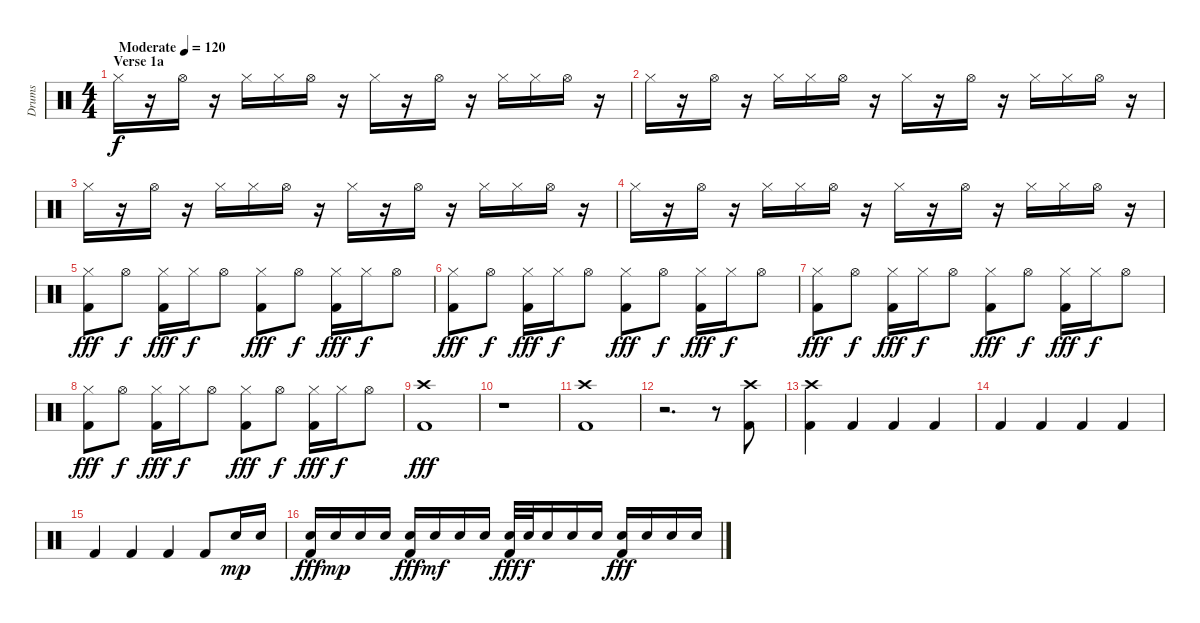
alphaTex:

\track ("Drums" "Drums") {instrument percussion}
\staff {score}
\articulation defaults
\ts (4 4)
\section ("" "Verse 1a")
\tempo (120 "Moderate")
\clef neutral
\ks c "Hi-Hat (closed)".16{dy f}
r.16 "Hi-Hat (open)".16 r.16 "Hi-Hat (closed)".16 "Hi-Hat (closed)".16 "Hi-Hat (open)".16 r.16 "Hi-Hat (closed)".16 r.16 "Hi-Hat (open)".16 r.16 "Hi-Hat (closed)".16 "Hi-Hat (closed)".16 "Hi-Hat (open)".16 r.16 |
"Hi-Hat (closed)".16 r.16 "Hi-Hat (open)".16 r.16 "Hi-Hat (closed)".16 "Hi-Hat (closed)".16 "Hi-Hat (open)".16 r.16 "Hi-Hat (closed)".16 r.16 "Hi-Hat (open)".16 r.16 "Hi-Hat (closed)".16 "Hi-Hat (closed)".16 "Hi-Hat (open)".16 r.16 |
"Hi-Hat (closed)".16 r.16 "Hi-Hat (open)".16 r.16 "Hi-Hat (closed)".16 "Hi-Hat (closed)".16 "Hi-Hat (open)".16 r.16 "Hi-Hat (closed)".16 r.16 "Hi-Hat (open)".16 r.16 "Hi-Hat (closed)".16 "Hi-Hat (closed)".16 "Hi-Hat (open)".16 r.16 |
"Hi-Hat (closed)".16 r.16 "Hi-Hat (open)".16 r.16 "Hi-Hat (closed)".16 "Hi-Hat (closed)".16 "Hi-Hat (open)".16 r.16 "Hi-Hat (closed)".16 r.16 "Hi-Hat (open)".16 r.16 "Hi-Hat (closed)".16 "Hi-Hat (closed)".16 "Hi-Hat (open)".16 r.16 |
("Hi-Hat (closed)" "Kick (hit) 2").8{dy fff} "Hi-Hat (open)".8{dy f} ("Hi-Hat (closed)" "Kick (hit) 2").16{dy fff} "Hi-Hat (closed)".16{dy f} "Hi-Hat (open)".8 ("Hi-Hat (closed)" "Kick (hit) 2").8{dy fff} "Hi-Hat (open)".8{dy f} ("Hi-Hat (closed)" "Kick (hit) 2").16{dy fff} "Hi-Hat (closed)".16{dy f} "Hi-Hat (open)".8 |
("Hi-Hat (closed)" "Kick (hit) 2").8{dy fff} "Hi-Hat (open)".8{dy f} ("Hi-Hat (closed)" "Kick (hit) 2").16{dy fff} "Hi-Hat (closed)".16{dy f} "Hi-Hat (open)".8 ("Hi-Hat (closed)" "Kick (hit) 2").8{dy fff} "Hi-Hat (open)".8{dy f} ("Hi-Hat (closed)" "Kick (hit) 2").16{dy fff} "Hi-Hat (closed)".16{dy f} "Hi-Hat (open)".8 |
("Hi-Hat (closed)" "Kick (hit) 2").8{dy fff} "Hi-Hat (open)".8{dy f} ("Hi-Hat (closed)" "Kick (hit) 2").16{dy fff} "Hi-Hat (closed)".16{dy f} "Hi-Hat (open)".8 ("Hi-Hat (closed)" "Kick (hit) 2").8{dy fff} "Hi-Hat (open)".8{dy f} ("Hi-Hat (closed)" "Kick (hit) 2").16{dy fff} "Hi-Hat (closed)".16{dy f} "Hi-Hat (open)".8 |
("Hi-Hat (closed)" "Kick (hit) 2").8{dy fff} "Hi-Hat (open)".8{dy f} ("Hi-Hat (closed)" "Kick (hit) 2").16{dy fff} "Hi-Hat (closed)".16{dy f} "Hi-Hat (open)".8 ("Hi-Hat (closed)" "Kick (hit) 2").8{dy fff} "Hi-Hat (open)".8{dy f} ("Hi-Hat (closed)" "Kick (hit) 2").16{dy fff} "Hi-Hat (closed)".16{dy f} "Hi-Hat (open)".8 |
("Crash high (hit)" "Kick (hit) 2").1{dy fff} |
r.1 |
("Crash high (hit)" "Kick (hit) 2").1 |
r.2{d} r.8 ("Crash high (hit)" "Kick (hit) 2").8 |
("Crash high (hit)" "Kick (hit) 2").4 "Kick (hit) 2".4 "Kick (hit) 2".4 "Kick (hit) 2".4 |
"Kick (hit) 2".4 "Kick (hit) 2".4 "Kick (hit) 2".4 "Kick (hit) 2".4 |
"Kick (hit) 2".4 "Kick (hit) 2".4 "Kick (hit) 2".4 "Kick (hit) 2".8 "Snare (hit) 2".16{dy mp} "Snare (hit) 2".16 |
("Snare (hit) 2" "Kick (hit) 2").16{dy fff} "Snare (hit) 2".16{dy mp} "Snare (hit) 2".16 "Snare (hit) 2".16 ("Snare (hit) 2" "Kick (hit) 2").16{dy fff} "Snare (hit) 2".16{dy mf} "Snare (hit) 2".16 "Snare (hit) 2".16 ("Snare (hit) 2" "Kick (hit) 2").32{dy fff} "Snare (hit) 2".32{dy f} "Snare (hit) 2".16 "Snare (hit) 2".16 "Snare (hit) 2".16 ("Snare (hit) 2" "Kick (hit) 2").16{dy fff} "Snare (hit) 2".16 "Snare (hit) 2".16 "Snare (hit) 2".16
